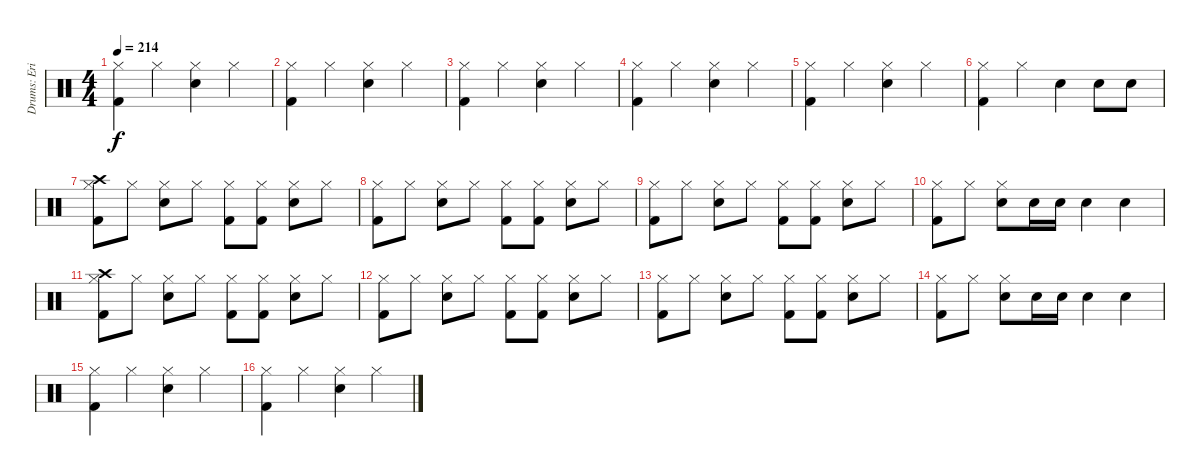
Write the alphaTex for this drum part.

\track ("Drums: Erik Sandin" "Drums: Eri") {instrument percussion}
\staff {score}
\articulation defaults
\ts (4 4)
\tempo 214
\clef neutral
\ks c
("Hi-Hat (closed)" "Kick (hit) 2").4{dy f} "Hi-Hat (closed)".4 ("Hi-Hat (closed)" "Electric Snare (hit)").4 "Hi-Hat (closed)".4 |
("Hi-Hat (closed)" "Kick (hit) 2").4 "Hi-Hat (closed)".4 ("Hi-Hat (closed)" "Electric Snare (hit)").4 "Hi-Hat (closed)".4 |
("Hi-Hat (closed)" "Kick (hit) 2").4 "Hi-Hat (closed)".4 ("Hi-Hat (closed)" "Electric Snare (hit)").4 "Hi-Hat (closed)".4 |
("Hi-Hat (closed)" "Kick (hit) 2").4 "Hi-Hat (closed)".4 ("Hi-Hat (closed)" "Electric Snare (hit)").4 "Hi-Hat (closed)".4 |
("Hi-Hat (closed)" "Kick (hit) 2").4 "Hi-Hat (closed)".4 ("Hi-Hat (closed)" "Electric Snare (hit)").4 "Hi-Hat (closed)".4 |
("Hi-Hat (closed)" "Kick (hit) 2").4 "Hi-Hat (closed)".4 "Electric Snare (hit)".4 "Electric Snare (hit)".8 "Electric Snare (hit)".8 |
("Crash high (hit)" "Hi-Hat (closed)" "Kick (hit) 2").8 "Hi-Hat (closed)".8 ("Hi-Hat (closed)" "Electric Snare (hit)").8 "Hi-Hat (closed)".8 ("Hi-Hat (closed)" "Kick (hit) 2").8 ("Hi-Hat (closed)" "Kick (hit) 2").8 ("Hi-Hat (closed)" "Electric Snare (hit)").8 "Hi-Hat (closed)".8 |
("Hi-Hat (closed)" "Kick (hit) 2").8 "Hi-Hat (closed)".8 ("Hi-Hat (closed)" "Electric Snare (hit)").8 "Hi-Hat (closed)".8 ("Hi-Hat (closed)" "Kick (hit) 2").8 ("Hi-Hat (closed)" "Kick (hit) 2").8 ("Hi-Hat (closed)" "Electric Snare (hit)").8 "Hi-Hat (closed)".8 |
("Hi-Hat (closed)" "Kick (hit) 2").8 "Hi-Hat (closed)".8 ("Hi-Hat (closed)" "Electric Snare (hit)").8 "Hi-Hat (closed)".8 ("Hi-Hat (closed)" "Kick (hit) 2").8 ("Hi-Hat (closed)" "Kick (hit) 2").8 ("Hi-Hat (closed)" "Electric Snare (hit)").8 "Hi-Hat (closed)".8 |
("Hi-Hat (closed)" "Kick (hit) 2").8 "Hi-Hat (closed)".8 ("Hi-Hat (closed)" "Electric Snare (hit)").8 "Electric Snare (hit)".16 "Electric Snare (hit)".16 "Electric Snare (hit)".4 "Electric Snare (hit)".4 |
("Crash high (hit)" "Hi-Hat (closed)" "Kick (hit) 2").8 "Hi-Hat (closed)".8 ("Hi-Hat (closed)" "Electric Snare (hit)").8 "Hi-Hat (closed)".8 ("Hi-Hat (closed)" "Kick (hit) 2").8 ("Hi-Hat (closed)" "Kick (hit) 2").8 ("Hi-Hat (closed)" "Electric Snare (hit)").8 "Hi-Hat (closed)".8 |
("Hi-Hat (closed)" "Kick (hit) 2").8 "Hi-Hat (closed)".8 ("Hi-Hat (closed)" "Electric Snare (hit)").8 "Hi-Hat (closed)".8 ("Hi-Hat (closed)" "Kick (hit) 2").8 ("Hi-Hat (closed)" "Kick (hit) 2").8 ("Hi-Hat (closed)" "Electric Snare (hit)").8 "Hi-Hat (closed)".8 |
("Hi-Hat (closed)" "Kick (hit) 2").8 "Hi-Hat (closed)".8 ("Hi-Hat (closed)" "Electric Snare (hit)").8 "Hi-Hat (closed)".8 ("Hi-Hat (closed)" "Kick (hit) 2").8 ("Hi-Hat (closed)" "Kick (hit) 2").8 ("Hi-Hat (closed)" "Electric Snare (hit)").8 "Hi-Hat (closed)".8 |
("Hi-Hat (closed)" "Kick (hit) 2").8 "Hi-Hat (closed)".8 ("Hi-Hat (closed)" "Electric Snare (hit)").8 "Electric Snare (hit)".16 "Electric Snare (hit)".16 "Electric Snare (hit)".4 "Electric Snare (hit)".4 |
("Hi-Hat (closed)" "Kick (hit) 2").4 "Hi-Hat (closed)".4 ("Hi-Hat (closed)" "Electric Snare (hit)").4 "Hi-Hat (closed)".4 |
("Hi-Hat (closed)" "Kick (hit) 2").4 "Hi-Hat (closed)".4 ("Hi-Hat (closed)" "Electric Snare (hit)").4 "Hi-Hat (closed)".4
